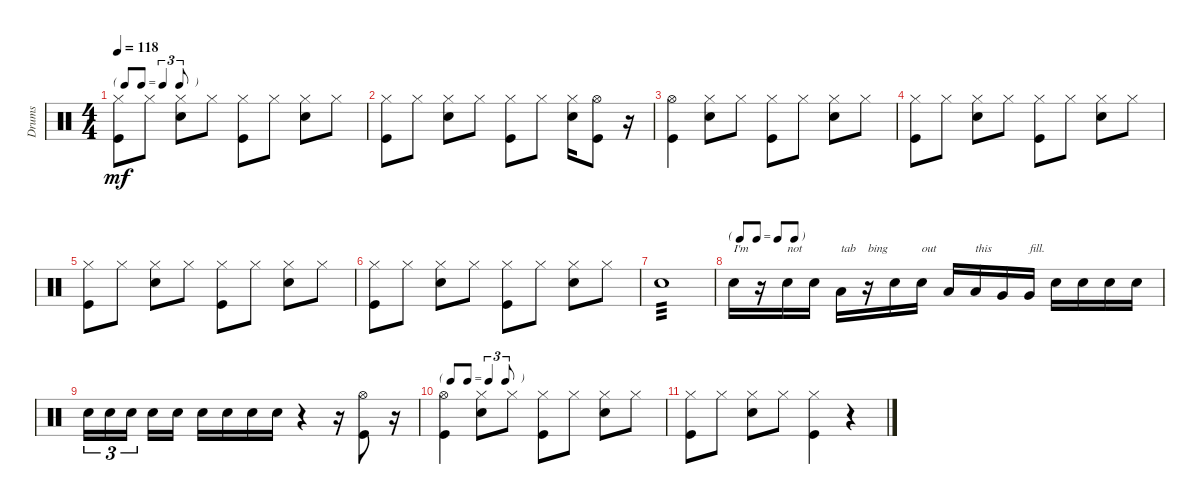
\track ("Drums" "Drums") {instrument percussion}
\staff {score}
\articulation defaults
\ts (4 4)
\tf triplet8th
\tempo 118
\clef neutral
\ks c
("Hi-Hat (closed)" "Kick (hit)").8{dy mf} "Hi-Hat (closed)".8 ("Hi-Hat (closed)" "Snare (hit) 2").8 "Hi-Hat (closed)".8 ("Hi-Hat (closed)" "Kick (hit)").8 "Hi-Hat (closed)".8 ("Hi-Hat (closed)" "Snare (hit) 2").8 "Hi-Hat (closed)".8 |
("Hi-Hat (closed)" "Kick (hit)").8 "Hi-Hat (closed)".8 ("Hi-Hat (closed)" "Snare (hit) 2").8 "Hi-Hat (closed)".8 ("Hi-Hat (closed)" "Kick (hit)").8 "Hi-Hat (closed)".8 ("Hi-Hat (closed)" "Snare (hit) 2").16 ("Hi-Hat (open)" "Kick (hit)").8 r.16 |
("Hi-Hat (open)" "Kick (hit)").4 ("Snare (hit) 2" "Hi-Hat (closed)").8 "Hi-Hat (closed)".8 ("Hi-Hat (closed)" "Kick (hit)").8 "Hi-Hat (closed)".8 ("Hi-Hat (closed)" "Snare (hit) 2").8 "Hi-Hat (closed)".8 |
("Hi-Hat (closed)" "Kick (hit)").8 "Hi-Hat (closed)".8 ("Hi-Hat (closed)" "Snare (hit) 2").8 "Hi-Hat (closed)".8 ("Hi-Hat (closed)" "Kick (hit)").8 "Hi-Hat (closed)".8 ("Hi-Hat (closed)" "Snare (hit) 2").8 "Hi-Hat (closed)".8 |
("Hi-Hat (closed)" "Kick (hit)").8 "Hi-Hat (closed)".8 ("Hi-Hat (closed)" "Snare (hit) 2").8 "Hi-Hat (closed)".8 ("Hi-Hat (closed)" "Kick (hit)").8 "Hi-Hat (closed)".8 ("Hi-Hat (closed)" "Snare (hit) 2").8 "Hi-Hat (closed)".8 |
("Hi-Hat (closed)" "Kick (hit)").8 "Hi-Hat (closed)".8 ("Hi-Hat (closed)" "Snare (hit) 2").8 "Hi-Hat (closed)".8 ("Hi-Hat (closed)" "Kick (hit)").8 "Hi-Hat (closed)".8 ("Hi-Hat (closed)" "Snare (hit) 2").8 "Hi-Hat (closed)".8 |
"Snare (hit) 2".1{tp 3} |
\tf none "Snare (hit) 2".16{txt "I'm"}
r.16 "Snare (hit) 2".16{txt "not"} "Snare (hit) 2".16 "Low Tom (hit)".16{txt "tab"} r.16{txt "bing"} "Snare (hit) 2".16 "Snare (hit) 2".16{txt "out"} "Low Tom (hit)".16 "Low Tom (hit)".16{txt "this"} "Very Low Tom (hit)".16 "Very Low Tom (hit)".16{txt "fill."} "Snare (hit) 2".16 "Snare (hit) 2".16 "Snare (hit) 2".16 "Snare (hit) 2".16 |
"Snare (hit) 2".16{tu (3 2)} "Snare (hit) 2".16{tu (3 2)} "Snare (hit) 2".16{tu (3 2)} "Snare (hit) 2".16 "Snare (hit) 2".16 "Snare (hit) 2".16 "Snare (hit) 2".16 "Snare (hit) 2".16 "Snare (hit) 2".16 r.4 r.16 ("Hi-Hat (open)" "Kick (hit)").8 r.16 |
\tf triplet8th
("Hi-Hat (open)" "Kick (hit)").4 ("Snare (hit) 2" "Hi-Hat (closed)").8 "Hi-Hat (closed)".8 ("Hi-Hat (closed)" "Kick (hit)").8 "Hi-Hat (closed)".8 ("Hi-Hat (closed)" "Snare (hit) 2").8 "Hi-Hat (closed)".8 |
("Hi-Hat (closed)" "Kick (hit)").8 "Hi-Hat (closed)".8 ("Hi-Hat (closed)" "Snare (hit) 2").8 "Hi-Hat (closed)".8 ("Hi-Hat (closed)" "Kick (hit)").4 r.4
